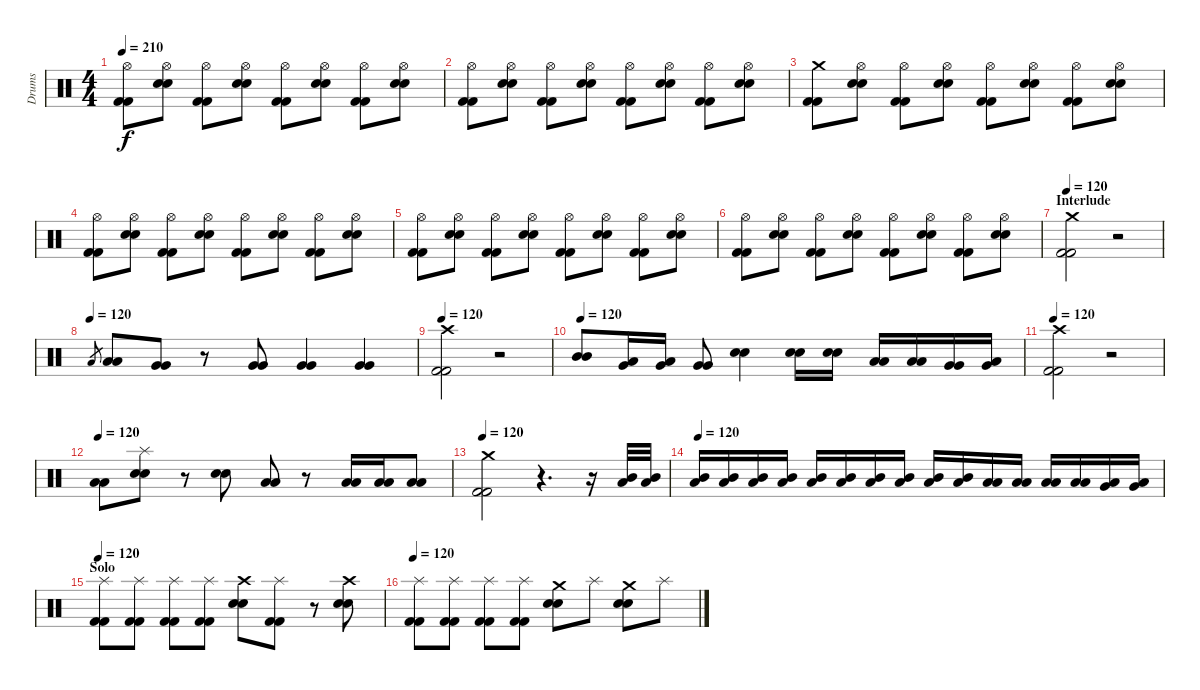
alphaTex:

\track ("Drums" "Drums") {instrument percussion}
\staff {score}
\articulation defaults
\ts (4 4)
\tempo 210
\clef neutral
\ks c
("Hi-Hat (open)" "Kick (hit) 2" "Kick (hit) 2").8{dy f} ("Hi-Hat (open)" "Snare (hit) 2" "Snare (hit) 2").8 ("Hi-Hat (open)" "Kick (hit) 2" "Kick (hit) 2").8 ("Hi-Hat (open)" "Snare (hit) 2" "Snare (hit) 2").8 ("Hi-Hat (open)" "Kick (hit) 2" "Kick (hit) 2").8 ("Hi-Hat (open)" "Snare (hit) 2" "Snare (hit) 2").8 ("Hi-Hat (open)" "Kick (hit) 2" "Kick (hit) 2").8 ("Hi-Hat (open)" "Snare (hit) 2" "Snare (hit) 2").8 |
("Hi-Hat (open)" "Kick (hit) 2" "Kick (hit) 2").8 ("Hi-Hat (open)" "Snare (hit) 2" "Snare (hit) 2").8 ("Hi-Hat (open)" "Kick (hit) 2" "Kick (hit) 2").8 ("Hi-Hat (open)" "Snare (hit) 2" "Snare (hit) 2").8 ("Hi-Hat (open)" "Kick (hit) 2" "Kick (hit) 2").8 ("Hi-Hat (open)" "Snare (hit) 2" "Snare (hit) 2").8 ("Hi-Hat (open)" "Kick (hit) 2" "Kick (hit) 2").8 ("Hi-Hat (open)" "Snare (hit) 2" "Snare (hit) 2").8 |
("Crash medium (hit)" "Kick (hit) 2" "Kick (hit) 2").8 ("Hi-Hat (open)" "Snare (hit) 2" "Snare (hit) 2").8 ("Hi-Hat (open)" "Kick (hit) 2" "Kick (hit) 2").8 ("Hi-Hat (open)" "Snare (hit) 2" "Snare (hit) 2").8 ("Hi-Hat (open)" "Kick (hit) 2" "Kick (hit) 2").8 ("Hi-Hat (open)" "Snare (hit) 2" "Snare (hit) 2").8 ("Hi-Hat (open)" "Kick (hit) 2" "Kick (hit) 2").8 ("Hi-Hat (open)" "Snare (hit) 2" "Snare (hit) 2").8 |
("Hi-Hat (open)" "Kick (hit) 2" "Kick (hit) 2").8 ("Hi-Hat (open)" "Snare (hit) 2" "Snare (hit) 2").8 ("Hi-Hat (open)" "Kick (hit) 2" "Kick (hit) 2").8 ("Hi-Hat (open)" "Snare (hit) 2" "Snare (hit) 2").8 ("Hi-Hat (open)" "Kick (hit) 2" "Kick (hit) 2").8 ("Hi-Hat (open)" "Snare (hit) 2" "Snare (hit) 2").8 ("Hi-Hat (open)" "Kick (hit) 2" "Kick (hit) 2").8 ("Hi-Hat (open)" "Snare (hit) 2" "Snare (hit) 2").8 |
("Hi-Hat (open)" "Kick (hit) 2" "Kick (hit) 2").8 ("Hi-Hat (open)" "Snare (hit) 2" "Snare (hit) 2").8 ("Hi-Hat (open)" "Kick (hit) 2" "Kick (hit) 2").8 ("Hi-Hat (open)" "Snare (hit) 2" "Snare (hit) 2").8 ("Hi-Hat (open)" "Kick (hit) 2" "Kick (hit) 2").8 ("Hi-Hat (open)" "Snare (hit) 2" "Snare (hit) 2").8 ("Hi-Hat (open)" "Kick (hit) 2" "Kick (hit) 2").8 ("Hi-Hat (open)" "Snare (hit) 2" "Snare (hit) 2").8 |
("Hi-Hat (open)" "Kick (hit) 2" "Kick (hit) 2").8 ("Hi-Hat (open)" "Snare (hit) 2" "Snare (hit) 2").8 ("Hi-Hat (open)" "Kick (hit) 2" "Kick (hit) 2").8 ("Hi-Hat (open)" "Snare (hit) 2" "Snare (hit) 2").8 ("Hi-Hat (open)" "Kick (hit) 2" "Kick (hit) 2").8 ("Hi-Hat (open)" "Snare (hit) 2" "Snare (hit) 2").8 ("Hi-Hat (open)" "Kick (hit) 2" "Kick (hit) 2").8 ("Hi-Hat (open)" "Snare (hit) 2" "Snare (hit) 2").8 |
\section ("" "Interlude")
\tempo 120
("Crash medium (hit)" "Kick (hit) 2" "Kick (hit) 2").2 r.2 |
\tempo (120)
"Low Tom (hit)".8{gr} ("Low Tom (hit)" "Low Tom (hit)").8 ("Very Low Tom (hit)" "Very Low Tom (hit)").8 r.8 ("Very Low Tom (hit)" "Very Low Tom (hit)").8 ("Very Low Tom (hit)" "Very Low Tom (hit)").4 ("Very Low Tom (hit)" "Very Low Tom (hit)").4 |
\tempo 120
("Crash high (hit)" "Kick (hit) 2" "Kick (hit) 2").2 r.2 |
\tempo 120
("Mid Tom (hit)" "Mid Tom (hit)").8 ("Low Tom (hit)" "Very Low Tom (hit)").16 ("Low Tom (hit)" "Very Low Tom (hit)").16 ("Very Low Tom (hit)" "Very Low Tom (hit)").8 ("Snare (hit) 2" "Snare (hit) 2").4 ("Snare (hit) 2" "Snare (hit) 2").16 ("Snare (hit) 2" "Snare (hit) 2").16 ("Low Tom (hit)" "Low Tom (hit)").16 ("Low Tom (hit)" "Low Tom (hit)").16 ("Very Low Tom (hit)" "Very Low Tom (hit)").16 ("Low Floor Tom (hit)" "Very Low Tom (hit)").16 |
\tempo 120
("Crash high (hit)" "Kick (hit) 2" "Kick (hit) 2").2 r.2 |
\tempo 120
("Low Tom (hit)" "Low Tom (hit)").8 ("Splash (hit)" "Snare (hit) 2" "Snare (hit) 2").8 r.8 ("Snare (hit) 2" "Snare (hit) 2").8 ("Low Tom (hit)" "Low Tom (hit)").8 r.8 ("Low Tom (hit)" "Low Tom (hit)").16 ("Low Tom (hit)" "Low Tom (hit)").16 ("Low Tom (hit)" "Low Tom (hit)").8 |
\tempo 120
("Crash medium (hit)" "Kick (hit) 2" "Kick (hit) 2").2 r.4{d} r.16 ("Mid Tom (hit)" "Low Tom (hit)").32 ("Mid Tom (hit)" "Low Tom (hit)").32 |
\tempo 120
("Low Tom (hit)" "Mid Tom (hit)").16 ("Low Tom (hit)" "Mid Tom (hit)").16 ("Low Tom (hit)" "Mid Tom (hit)").16 ("Low Tom (hit)" "Mid Tom (hit)").16 ("Low Tom (hit)" "Mid Tom (hit)").16 ("Low Tom (hit)" "Mid Tom (hit)").16 ("Low Tom (hit)" "Mid Tom (hit)").16 ("Low Tom (hit)" "Mid Tom (hit)").16 ("Low Tom (hit)" "Mid Tom (hit)").16 ("Low Tom (hit)" "Mid Tom (hit)").16 ("Low Tom (hit)" "Low Tom (hit)").16 ("Low Tom (hit)" "Low Tom (hit)").16 ("Low Tom (hit)" "Low Tom (hit)").16 ("Low Tom (hit)" "Low Tom (hit)").16 ("Low Tom (hit)" "Very Low Tom (hit)").16 ("Low Tom (hit)" "Very Low Tom (hit)").16 |
\section ("" "Solo")
\tempo 120
("Splash (hit)" "Kick (hit) 2" "Kick (hit) 2").8 ("Splash (hit)" "Kick (hit) 2" "Kick (hit) 2").8 ("Splash (hit)" "Kick (hit) 2" "Kick (hit) 2").8 ("Splash (hit)" "Kick (hit) 2" "Kick (hit) 2").8 ("Crash high (hit)" "Snare (hit) 2" "Snare (hit) 2").8 ("Splash (hit)" "Kick (hit) 2" "Kick (hit) 2").8 r.8 ("Crash high (hit)" "Snare (hit) 2" "Snare (hit) 2").8 |
\tempo 120
("Splash (hit)" "Kick (hit) 2" "Kick (hit) 2").8 ("Splash (hit)" "Kick (hit) 2" "Kick (hit) 2").8 ("Splash (hit)" "Kick (hit) 2" "Kick (hit) 2").8 ("Splash (hit)" "Kick (hit) 2" "Kick (hit) 2").8 ("Crash medium (hit)" "Snare (hit) 2" "Snare (hit) 2").8 "Splash (hit)".8 ("Crash medium (hit)" "Snare (hit) 2" "Snare (hit) 2").8 "Splash (hit)".8
